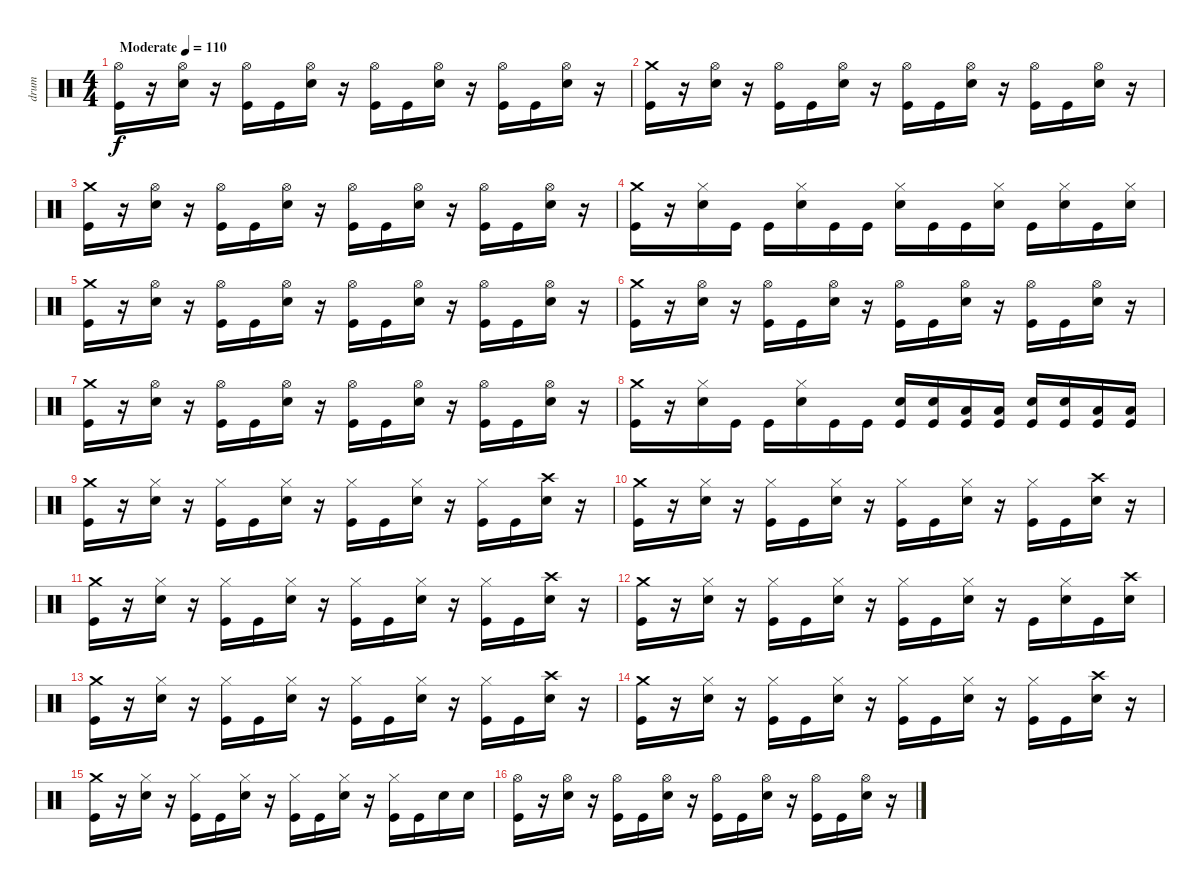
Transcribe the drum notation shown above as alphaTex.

\track ("drum" "drum") {instrument percussion}
\staff {score}
\articulation defaults
\ts (4 4)
\tempo (110 "Moderate")
\clef neutral
\ks c
("Hi-Hat (open)" "Kick (hit)").16{dy f} r.16 ("Hi-Hat (open)" "Electric Snare (hit)").16 r.16 ("Hi-Hat (open)" "Kick (hit)").16 "Kick (hit)".16 ("Hi-Hat (open)" "Electric Snare (hit)").16 r.16 ("Hi-Hat (open)" "Kick (hit)").16 "Kick (hit)".16 ("Hi-Hat (open)" "Electric Snare (hit)").16 r.16 ("Hi-Hat (open)" "Kick (hit)").16 "Kick (hit)".16 ("Hi-Hat (open)" "Electric Snare (hit)").16 r.16 |
("Crash medium (hit)" "Kick (hit)").16 r.16 ("Hi-Hat (open)" "Electric Snare (hit)").16 r.16 ("Hi-Hat (open)" "Kick (hit)").16 "Kick (hit)".16 ("Hi-Hat (open)" "Electric Snare (hit)").16 r.16 ("Hi-Hat (open)" "Kick (hit)").16 "Kick (hit)".16 ("Hi-Hat (open)" "Electric Snare (hit)").16 r.16 ("Hi-Hat (open)" "Kick (hit)").16 "Kick (hit)".16 ("Hi-Hat (open)" "Electric Snare (hit)").16 r.16 |
("Crash medium (hit)" "Kick (hit)").16 r.16 ("Hi-Hat (open)" "Electric Snare (hit)").16 r.16 ("Hi-Hat (open)" "Kick (hit)").16 "Kick (hit)".16 ("Hi-Hat (open)" "Electric Snare (hit)").16 r.16 ("Hi-Hat (open)" "Kick (hit)").16 "Kick (hit)".16 ("Hi-Hat (open)" "Electric Snare (hit)").16 r.16 ("Hi-Hat (open)" "Kick (hit)").16 "Kick (hit)".16 ("Hi-Hat (open)" "Electric Snare (hit)").16 r.16 |
("Crash medium (hit)" "Kick (hit)").16 r.16 ("Hi-Hat (closed)" "Electric Snare (hit)").16 "Kick (hit)".16 "Kick (hit)".16 ("Hi-Hat (closed)" "Electric Snare (hit)").16 "Kick (hit)".16 "Kick (hit)".16 ("Hi-Hat (closed)" "Electric Snare (hit)").16 "Kick (hit)".16 "Kick (hit)".16 ("Hi-Hat (closed)" "Electric Snare (hit)").16 "Kick (hit)".16 ("Hi-Hat (closed)" "Electric Snare (hit)").16 "Kick (hit)".16 ("Hi-Hat (closed)" "Electric Snare (hit)").16 |
("Crash medium (hit)" "Kick (hit)").16 r.16 ("Hi-Hat (open)" "Electric Snare (hit)").16 r.16 ("Hi-Hat (open)" "Kick (hit)").16 "Kick (hit)".16 ("Hi-Hat (open)" "Electric Snare (hit)").16 r.16 ("Hi-Hat (open)" "Kick (hit)").16 "Kick (hit)".16 ("Hi-Hat (open)" "Electric Snare (hit)").16 r.16 ("Hi-Hat (open)" "Kick (hit)").16 "Kick (hit)".16 ("Hi-Hat (open)" "Electric Snare (hit)").16 r.16 |
("Crash medium (hit)" "Kick (hit)").16 r.16 ("Hi-Hat (open)" "Electric Snare (hit)").16 r.16 ("Hi-Hat (open)" "Kick (hit)").16 "Kick (hit)".16 ("Hi-Hat (open)" "Electric Snare (hit)").16 r.16 ("Hi-Hat (open)" "Kick (hit)").16 "Kick (hit)".16 ("Hi-Hat (open)" "Electric Snare (hit)").16 r.16 ("Hi-Hat (open)" "Kick (hit)").16 "Kick (hit)".16 ("Hi-Hat (open)" "Electric Snare (hit)").16 r.16 |
("Crash medium (hit)" "Kick (hit)").16 r.16 ("Hi-Hat (open)" "Electric Snare (hit)").16 r.16 ("Hi-Hat (open)" "Kick (hit)").16 "Kick (hit)".16 ("Hi-Hat (open)" "Electric Snare (hit)").16 r.16 ("Hi-Hat (open)" "Kick (hit)").16 "Kick (hit)".16 ("Hi-Hat (open)" "Electric Snare (hit)").16 r.16 ("Hi-Hat (open)" "Kick (hit)").16 "Kick (hit)".16 ("Hi-Hat (open)" "Electric Snare (hit)").16 r.16 |
("Crash medium (hit)" "Kick (hit)").16 r.16 ("Hi-Hat (closed)" "Electric Snare (hit)").16 "Kick (hit)".16 "Kick (hit)".16 ("Hi-Hat (closed)" "Electric Snare (hit)").16 "Kick (hit)".16 "Kick (hit)".16 ("Electric Snare (hit)" "Kick (hit)").16 ("Electric Snare (hit)" "Kick (hit)").16 ("Low Tom (hit)" "Kick (hit)").16 ("Low Tom (hit)" "Kick (hit)").16 ("Electric Snare (hit)" "Kick (hit)").16 ("Electric Snare (hit)" "Kick (hit)").16 ("Low Tom (hit)" "Kick (hit)").16 ("Low Tom (hit)" "Kick (hit)").16 |
("Crash medium (hit)" "Kick (hit)").16 r.16 ("Hi-Hat (closed)" "Electric Snare (hit)").16 r.16 ("Hi-Hat (closed)" "Kick (hit)").16 "Kick (hit)".16 ("Hi-Hat (closed)" "Electric Snare (hit)").16 r.16 ("Hi-Hat (closed)" "Kick (hit)").16 "Kick (hit)".16 ("Hi-Hat (closed)" "Electric Snare (hit)").16 r.16 ("Hi-Hat (closed)" "Kick (hit)").16 "Kick (hit)".16 ("Crash high (hit)" "Electric Snare (hit)").16 r.16 |
("Crash medium (hit)" "Kick (hit)").16 r.16 ("Hi-Hat (closed)" "Electric Snare (hit)").16 r.16 ("Hi-Hat (closed)" "Kick (hit)").16 "Kick (hit)".16 ("Hi-Hat (closed)" "Electric Snare (hit)").16 r.16 ("Hi-Hat (closed)" "Kick (hit)").16 "Kick (hit)".16 ("Hi-Hat (closed)" "Electric Snare (hit)").16 r.16 ("Hi-Hat (closed)" "Kick (hit)").16 "Kick (hit)".16 ("Crash high (hit)" "Electric Snare (hit)").16 r.16 |
("Crash medium (hit)" "Kick (hit)").16 r.16 ("Hi-Hat (closed)" "Electric Snare (hit)").16 r.16 ("Hi-Hat (closed)" "Kick (hit)").16 "Kick (hit)".16 ("Hi-Hat (closed)" "Electric Snare (hit)").16 r.16 ("Hi-Hat (closed)" "Kick (hit)").16 "Kick (hit)".16 ("Hi-Hat (closed)" "Electric Snare (hit)").16 r.16 ("Hi-Hat (closed)" "Kick (hit)").16 "Kick (hit)".16 ("Crash high (hit)" "Electric Snare (hit)").16 r.16 |
("Crash medium (hit)" "Kick (hit)").16 r.16 ("Hi-Hat (closed)" "Electric Snare (hit)").16 r.16 ("Hi-Hat (closed)" "Kick (hit)").16 "Kick (hit)".16 ("Hi-Hat (closed)" "Electric Snare (hit)").16 r.16 ("Hi-Hat (closed)" "Kick (hit)").16 "Kick (hit)".16 ("Hi-Hat (closed)" "Electric Snare (hit)").16 r.16 "Kick (hit)".16 ("Hi-Hat (closed)" "Electric Snare (hit)").16 "Kick (hit)".16 ("Crash high (hit)" "Electric Snare (hit)").16 |
("Crash medium (hit)" "Kick (hit)").16 r.16 ("Hi-Hat (closed)" "Electric Snare (hit)").16 r.16 ("Hi-Hat (closed)" "Kick (hit)").16 "Kick (hit)".16 ("Hi-Hat (closed)" "Electric Snare (hit)").16 r.16 ("Hi-Hat (closed)" "Kick (hit)").16 "Kick (hit)".16 ("Hi-Hat (closed)" "Electric Snare (hit)").16 r.16 ("Hi-Hat (closed)" "Kick (hit)").16 "Kick (hit)".16 ("Crash high (hit)" "Electric Snare (hit)").16 r.16 |
("Crash medium (hit)" "Kick (hit)").16 r.16 ("Hi-Hat (closed)" "Electric Snare (hit)").16 r.16 ("Hi-Hat (closed)" "Kick (hit)").16 "Kick (hit)".16 ("Hi-Hat (closed)" "Electric Snare (hit)").16 r.16 ("Hi-Hat (closed)" "Kick (hit)").16 "Kick (hit)".16 ("Hi-Hat (closed)" "Electric Snare (hit)").16 r.16 ("Hi-Hat (closed)" "Kick (hit)").16 "Kick (hit)".16 ("Crash high (hit)" "Electric Snare (hit)").16 r.16 |
("Crash medium (hit)" "Kick (hit)").16 r.16 ("Hi-Hat (closed)" "Electric Snare (hit)").16 r.16 ("Hi-Hat (closed)" "Kick (hit)").16 "Kick (hit)".16 ("Hi-Hat (closed)" "Electric Snare (hit)").16 r.16 ("Hi-Hat (closed)" "Kick (hit)").16 "Kick (hit)".16 ("Hi-Hat (closed)" "Electric Snare (hit)").16 r.16 ("Hi-Hat (closed)" "Kick (hit)").16 "Kick (hit)".16 "Electric Snare (hit)".16 "Electric Snare (hit)".16 |
("Hi-Hat (open)" "Kick (hit)").16 r.16 ("Hi-Hat (open)" "Electric Snare (hit)").16 r.16 ("Hi-Hat (open)" "Kick (hit)").16 "Kick (hit)".16 ("Hi-Hat (open)" "Electric Snare (hit)").16 r.16 ("Hi-Hat (open)" "Kick (hit)").16 "Kick (hit)".16 ("Hi-Hat (open)" "Electric Snare (hit)").16 r.16 ("Hi-Hat (open)" "Kick (hit)").16 "Kick (hit)".16 ("Hi-Hat (open)" "Electric Snare (hit)").16 r.16
